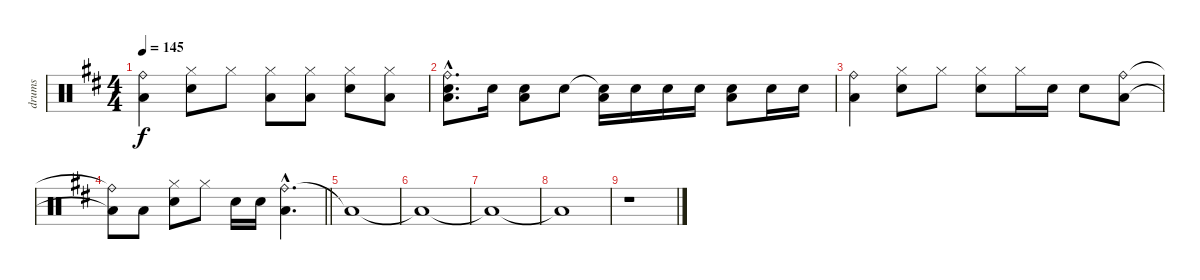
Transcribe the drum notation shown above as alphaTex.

\track ("drums" "drums") {instrument percussion}
\staff {score}
\articulation defaults
\ts (4 4)
\tempo 145
\clef neutral
\ks d
("Ride (bell)" "Low Floor Tom (hit)").4{dy f} ("Hi-Hat (closed)" "Electric Snare (hit)").8 "Hi-Hat (closed)".8 ("Hi-Hat (closed)" "Low Floor Tom (hit)").8 ("Hi-Hat (closed)" "Low Floor Tom (hit)").8 ("Hi-Hat (closed)" "Electric Snare (hit)").8 ("Hi-Hat (closed)" "Low Floor Tom (hit)").8 |
("Ride (bell)"{hac} "Electric Snare (hit)"{hac} "Low Floor Tom (hit)"{hac}).8{d} "Electric Snare (hit)".16 ("Electric Snare (hit)" "Low Floor Tom (hit)").8 "Electric Snare (hit)".8 ("Electric Snare (hit)"{t} "Low Floor Tom (hit)").16 "Electric Snare (hit)".16 "Electric Snare (hit)".16 "Electric Snare (hit)".16 ("Electric Snare (hit)" "Low Floor Tom (hit)").8 "Electric Snare (hit)".16 "Electric Snare (hit)".16 |
("Ride (bell)" "Low Floor Tom (hit)").4 ("Hi-Hat (closed)" "Electric Snare (hit)").8 "Hi-Hat (closed)".8 ("Hi-Hat (closed)" "Electric Snare (hit)").8 "Hi-Hat (closed)".16 "Electric Snare (hit)".16 "Electric Snare (hit)".8 ("Ride (bell)" "Low Floor Tom (hit)").8 |
\barLineRight lightlight
("Ride (bell)"{t} "Low Floor Tom (hit)"{t}).8 "Low Floor Tom (hit)".8 ("Hi-Hat (closed)" "Electric Snare (hit)").8 "Hi-Hat (closed)".8 "Electric Snare (hit)".16 "Electric Snare (hit)".16 ("Ride (bell)"{hac} "Low Floor Tom (hit)"{hac}).4{d} |
"Low Floor Tom (hit)"{t}.1 |
"Low Floor Tom (hit)"{t}.1 |
"Low Floor Tom (hit)"{t}.1 |
"Low Floor Tom (hit)"{t}.1 |
r.1
